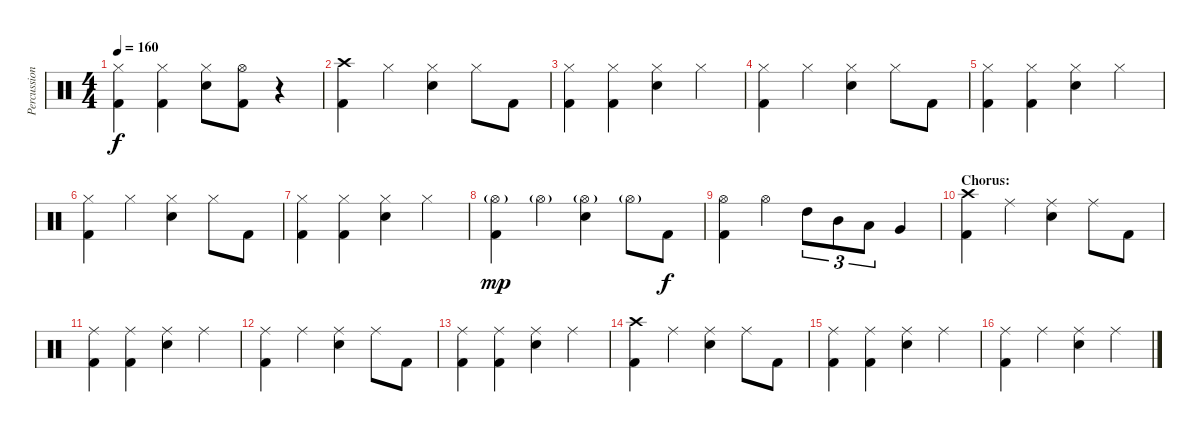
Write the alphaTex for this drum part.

\track ("Percussion" "Percussion") {instrument percussion}
\staff {score}
\articulation defaults
\ts (4 4)
\tempo 160
\clef neutral
\ks c
("Hi-Hat (closed)" "Kick (hit) 2").4{dy f} ("Hi-Hat (closed)" "Kick (hit) 2").4 ("Hi-Hat (closed)" "Electric Snare (hit)").8 ("Hi-Hat (open)" "Kick (hit) 2").8 r.4 |
("Crash high (hit)" "Kick (hit) 2").4 "Hi-Hat (closed)".4 ("Hi-Hat (closed)" "Electric Snare (hit)").4 "Hi-Hat (closed)".8 "Kick (hit) 2".8 |
("Hi-Hat (closed)" "Kick (hit) 2").4 ("Hi-Hat (closed)" "Kick (hit) 2").4 ("Hi-Hat (closed)" "Electric Snare (hit)").4 "Hi-Hat (closed)".4 |
("Hi-Hat (closed)" "Kick (hit) 2").4 "Hi-Hat (closed)".4 ("Hi-Hat (closed)" "Electric Snare (hit)").4 "Hi-Hat (closed)".8 "Kick (hit) 2".8 |
("Hi-Hat (closed)" "Kick (hit) 2").4 ("Hi-Hat (closed)" "Kick (hit) 2").4 ("Hi-Hat (closed)" "Electric Snare (hit)").4 "Hi-Hat (closed)".4 |
("Hi-Hat (closed)" "Kick (hit) 2").4 "Hi-Hat (closed)".4 ("Hi-Hat (closed)" "Electric Snare (hit)").4 "Hi-Hat (closed)".8 "Kick (hit) 2".8 |
("Hi-Hat (closed)" "Kick (hit) 2").4 ("Hi-Hat (closed)" "Kick (hit) 2").4 ("Hi-Hat (closed)" "Electric Snare (hit)").4 "Hi-Hat (closed)".4 |
("Hi-Hat (open)"{g} "Kick (hit) 2").4{dy mp} "Hi-Hat (open)"{g}.4 ("Hi-Hat (open)"{g} "Electric Snare (hit)").4 "Hi-Hat (open)"{g}.8 "Kick (hit) 2".8{dy f} |
("Hi-Hat (open)" "Kick (hit) 2").4 "Hi-Hat (open)".4 "High Tom (hit)".8{tu (3 2)} "Mid Tom (hit)".8{tu (3 2)} "Low Tom (hit)".8{tu (3 2)} "Very Low Tom (hit)".4 |
\section ("" "Chorus:")
("Crash high (hit)" "Kick (hit) 2").4 "Ride (middle)".4 ("Ride (middle)" "Electric Snare (hit)").4 "Ride (middle)".8 "Kick (hit) 2".8 |
("Ride (middle)" "Kick (hit) 2").4 ("Ride (middle)" "Kick (hit) 2").4 ("Ride (middle)" "Electric Snare (hit)").4 "Ride (middle)".4 |
("Ride (middle)" "Kick (hit) 2").4 "Ride (middle)".4 ("Ride (middle)" "Electric Snare (hit)").4 "Ride (middle)".8 "Kick (hit) 2".8 |
("Ride (middle)" "Kick (hit) 2").4 ("Ride (middle)" "Kick (hit) 2").4 ("Ride (middle)" "Electric Snare (hit)").4 "Ride (middle)".4 |
("Crash high (hit)" "Kick (hit) 2").4 "Ride (middle)".4 ("Ride (middle)" "Electric Snare (hit)").4 "Ride (middle)".8 "Kick (hit) 2".8 |
("Ride (middle)" "Kick (hit) 2").4 ("Ride (middle)" "Kick (hit) 2").4 ("Ride (middle)" "Electric Snare (hit)").4 "Ride (middle)".4 |
("Ride (middle)" "Kick (hit) 2").4 "Ride (middle)".4 ("Ride (middle)" "Electric Snare (hit)").4 "Ride (middle)".4
